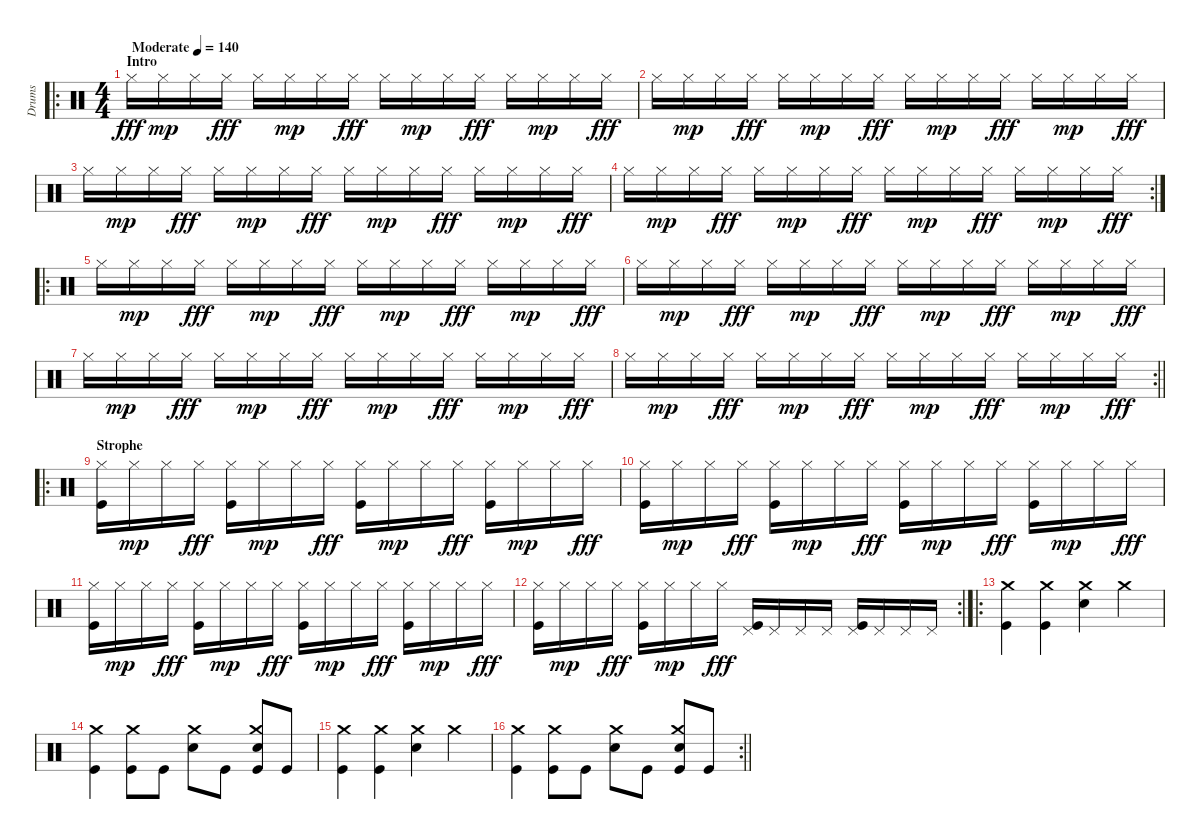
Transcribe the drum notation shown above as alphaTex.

\track ("Drums" "Drums") {instrument percussion}
\staff {score}
\articulation defaults
\ro
\ts (4 4)
\section ("" "Intro")
\tempo (140 "Moderate")
\clef neutral
\ks c "Hi-Hat (closed)".16{dy fff} "Hi-Hat (closed)".16{dy mp} "Hi-Hat (closed)".16 "Hi-Hat (closed)".16{dy fff} "Hi-Hat (closed)".16 "Hi-Hat (closed)".16{dy mp} "Hi-Hat (closed)".16 "Hi-Hat (closed)".16{dy fff} "Hi-Hat (closed)".16 "Hi-Hat (closed)".16{dy mp} "Hi-Hat (closed)".16 "Hi-Hat (closed)".16{dy fff} "Hi-Hat (closed)".16 "Hi-Hat (closed)".16{dy mp} "Hi-Hat (closed)".16 "Hi-Hat (closed)".16{dy fff}
|
"Hi-Hat (closed)".16 "Hi-Hat (closed)".16{dy mp} "Hi-Hat (closed)".16 "Hi-Hat (closed)".16{dy fff} "Hi-Hat (closed)".16 "Hi-Hat (closed)".16{dy mp} "Hi-Hat (closed)".16 "Hi-Hat (closed)".16{dy fff} "Hi-Hat (closed)".16 "Hi-Hat (closed)".16{dy mp} "Hi-Hat (closed)".16 "Hi-Hat (closed)".16{dy fff} "Hi-Hat (closed)".16 "Hi-Hat (closed)".16{dy mp} "Hi-Hat (closed)".16 "Hi-Hat (closed)".16{dy fff} |
"Hi-Hat (closed)".16 "Hi-Hat (closed)".16{dy mp} "Hi-Hat (closed)".16 "Hi-Hat (closed)".16{dy fff} "Hi-Hat (closed)".16 "Hi-Hat (closed)".16{dy mp} "Hi-Hat (closed)".16 "Hi-Hat (closed)".16{dy fff} "Hi-Hat (closed)".16 "Hi-Hat (closed)".16{dy mp} "Hi-Hat (closed)".16 "Hi-Hat (closed)".16{dy fff} "Hi-Hat (closed)".16 "Hi-Hat (closed)".16{dy mp} "Hi-Hat (closed)".16 "Hi-Hat (closed)".16{dy fff} |
\rc 2 "Hi-Hat (closed)".16 "Hi-Hat (closed)".16{dy mp} "Hi-Hat (closed)".16 "Hi-Hat (closed)".16{dy fff} "Hi-Hat (closed)".16 "Hi-Hat (closed)".16{dy mp} "Hi-Hat (closed)".16 "Hi-Hat (closed)".16{dy fff} "Hi-Hat (closed)".16 "Hi-Hat (closed)".16{dy mp} "Hi-Hat (closed)".16 "Hi-Hat (closed)".16{dy fff} "Hi-Hat (closed)".16 "Hi-Hat (closed)".16{dy mp} "Hi-Hat (closed)".16 "Hi-Hat (closed)".16{dy fff}
|
\ro "Hi-Hat (closed)".16 "Hi-Hat (closed)".16{dy mp} "Hi-Hat (closed)".16 "Hi-Hat (closed)".16{dy fff} "Hi-Hat (closed)".16 "Hi-Hat (closed)".16{dy mp} "Hi-Hat (closed)".16 "Hi-Hat (closed)".16{dy fff} "Hi-Hat (closed)".16 "Hi-Hat (closed)".16{dy mp} "Hi-Hat (closed)".16 "Hi-Hat (closed)".16{dy fff} "Hi-Hat (closed)".16 "Hi-Hat (closed)".16{dy mp} "Hi-Hat (closed)".16 "Hi-Hat (closed)".16{dy fff}
|
"Hi-Hat (closed)".16 "Hi-Hat (closed)".16{dy mp} "Hi-Hat (closed)".16 "Hi-Hat (closed)".16{dy fff} "Hi-Hat (closed)".16 "Hi-Hat (closed)".16{dy mp} "Hi-Hat (closed)".16 "Hi-Hat (closed)".16{dy fff} "Hi-Hat (closed)".16 "Hi-Hat (closed)".16{dy mp} "Hi-Hat (closed)".16 "Hi-Hat (closed)".16{dy fff} "Hi-Hat (closed)".16 "Hi-Hat (closed)".16{dy mp} "Hi-Hat (closed)".16 "Hi-Hat (closed)".16{dy fff} |
"Hi-Hat (closed)".16 "Hi-Hat (closed)".16{dy mp} "Hi-Hat (closed)".16 "Hi-Hat (closed)".16{dy fff} "Hi-Hat (closed)".16 "Hi-Hat (closed)".16{dy mp} "Hi-Hat (closed)".16 "Hi-Hat (closed)".16{dy fff} "Hi-Hat (closed)".16 "Hi-Hat (closed)".16{dy mp} "Hi-Hat (closed)".16 "Hi-Hat (closed)".16{dy fff} "Hi-Hat (closed)".16 "Hi-Hat (closed)".16{dy mp} "Hi-Hat (closed)".16 "Hi-Hat (closed)".16{dy fff} |
\rc 2
\barLineRight lightlight "Hi-Hat (closed)".16 "Hi-Hat (closed)".16{dy mp} "Hi-Hat (closed)".16 "Hi-Hat (closed)".16{dy fff} "Hi-Hat (closed)".16 "Hi-Hat (closed)".16{dy mp} "Hi-Hat (closed)".16 "Hi-Hat (closed)".16{dy fff} "Hi-Hat (closed)".16 "Hi-Hat (closed)".16{dy mp} "Hi-Hat (closed)".16 "Hi-Hat (closed)".16{dy fff} "Hi-Hat (closed)".16 "Hi-Hat (closed)".16{dy mp} "Hi-Hat (closed)".16 "Hi-Hat (closed)".16{dy fff}
|
\ro
\section ("" "Strophe")
("Hi-Hat (closed)" "Kick (hit)").16 "Hi-Hat (closed)".16{dy mp} "Hi-Hat (closed)".16 "Hi-Hat (closed)".16{dy fff} ("Hi-Hat (closed)" "Kick (hit)").16 "Hi-Hat (closed)".16{dy mp} "Hi-Hat (closed)".16 "Hi-Hat (closed)".16{dy fff} ("Hi-Hat (closed)" "Kick (hit)").16 "Hi-Hat (closed)".16{dy mp} "Hi-Hat (closed)".16 "Hi-Hat (closed)".16{dy fff} ("Hi-Hat (closed)" "Kick (hit)").16 "Hi-Hat (closed)".16{dy mp} "Hi-Hat (closed)".16 "Hi-Hat (closed)".16{dy fff} |
("Hi-Hat (closed)" "Kick (hit)").16 "Hi-Hat (closed)".16{dy mp} "Hi-Hat (closed)".16 "Hi-Hat (closed)".16{dy fff} ("Hi-Hat (closed)" "Kick (hit)").16 "Hi-Hat (closed)".16{dy mp} "Hi-Hat (closed)".16 "Hi-Hat (closed)".16{dy fff} ("Hi-Hat (closed)" "Kick (hit)").16 "Hi-Hat (closed)".16{dy mp} "Hi-Hat (closed)".16 "Hi-Hat (closed)".16{dy fff} ("Hi-Hat (closed)" "Kick (hit)").16 "Hi-Hat (closed)".16{dy mp} "Hi-Hat (closed)".16 "Hi-Hat (closed)".16{dy fff} |
("Hi-Hat (closed)" "Kick (hit)").16 "Hi-Hat (closed)".16{dy mp} "Hi-Hat (closed)".16 "Hi-Hat (closed)".16{dy fff} ("Hi-Hat (closed)" "Kick (hit)").16 "Hi-Hat (closed)".16{dy mp} "Hi-Hat (closed)".16 "Hi-Hat (closed)".16{dy fff} ("Hi-Hat (closed)" "Kick (hit)").16 "Hi-Hat (closed)".16{dy mp} "Hi-Hat (closed)".16 "Hi-Hat (closed)".16{dy fff} ("Hi-Hat (closed)" "Kick (hit)").16 "Hi-Hat (closed)".16{dy mp} "Hi-Hat (closed)".16 "Hi-Hat (closed)".16{dy fff} |
\rc 2
("Hi-Hat (closed)" "Kick (hit)").16 "Hi-Hat (closed)".16{dy mp} "Hi-Hat (closed)".16 "Hi-Hat (closed)".16{dy fff} ("Hi-Hat (closed)" "Kick (hit)").16 "Hi-Hat (closed)".16{dy mp} "Hi-Hat (closed)".16 "Hi-Hat (closed)".16{dy fff} ("Pedal Hi-Hat (hit)" "Kick (hit)").16 "Pedal Hi-Hat (hit)".16 "Pedal Hi-Hat (hit)".16 "Pedal Hi-Hat (hit)".16 ("Pedal Hi-Hat (hit)" "Kick (hit)").16 "Pedal Hi-Hat (hit)".16 "Pedal Hi-Hat (hit)".16 "Pedal Hi-Hat (hit)".16 |
\ro
("Crash medium (hit)" "Kick (hit)").4 ("Crash medium (hit)" "Kick (hit)").4 ("Crash medium (hit)" "Snare (hit) 2").4 "Crash medium (hit)".4 |
("Crash medium (hit)" "Kick (hit)").4 ("Crash medium (hit)" "Kick (hit)").8 "Kick (hit)".8 ("Crash medium (hit)" "Snare (hit) 2").8 "Kick (hit)".8 ("Crash medium (hit)" "Snare (hit) 2" "Kick (hit)").8 "Kick (hit)".8 |
("Crash medium (hit)" "Kick (hit)").4 ("Crash medium (hit)" "Kick (hit)").4 ("Crash medium (hit)" "Snare (hit) 2").4 "Crash medium (hit)".4 |
\rc 2
\barLineRight lightlight
("Crash medium (hit)" "Kick (hit)").4 ("Crash medium (hit)" "Kick (hit)").8 "Kick (hit)".8 ("Crash medium (hit)" "Snare (hit) 2").8 "Kick (hit)".8 ("Crash medium (hit)" "Snare (hit) 2" "Kick (hit)").8 "Kick (hit)".8
